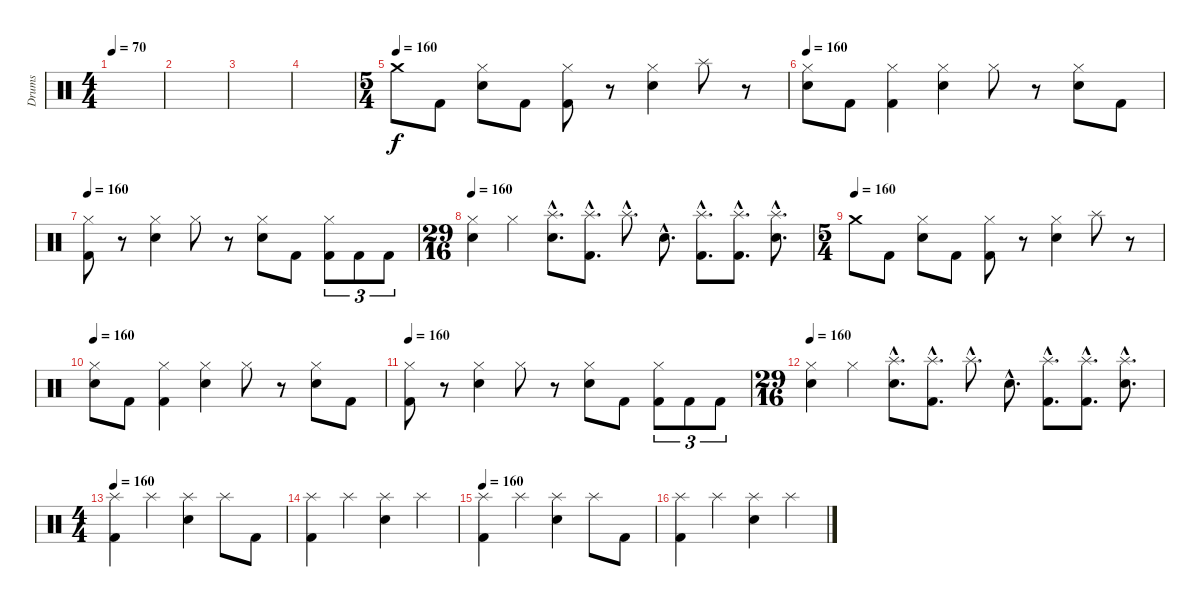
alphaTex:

\track ("Drums" "Drums") {instrument percussion}
\staff {score}
\articulation defaults
\ts (4 4)
\tempo 70
\clef neutral
\ks c
|
|
|
|
\ts (5 4)
\tempo (160)
"Crash medium (hit)".8 "Kick (hit) 2".8 ("Electric Snare (hit)" "Hi-Hat (closed)").8 "Kick (hit) 2".8 ("Kick (hit) 2" "Hi-Hat (closed)").8 r.8 ("Electric Snare (hit)" "Hi-Hat (closed)").4 "Splash (hit)".8 r.8 |
\tempo 160
("Electric Snare (hit)" "Hi-Hat (closed)").8 "Kick (hit) 2".8 ("Kick (hit) 2" "Hi-Hat (closed)").4 ("Electric Snare (hit)" "Hi-Hat (closed)").4 "Hi-Hat (closed)".8 r.8 ("Electric Snare (hit)" "Hi-Hat (closed)").8 "Kick (hit) 2".8 |
\tempo 160
("Kick (hit) 2" "Hi-Hat (closed)").8 r.8 ("Electric Snare (hit)" "Hi-Hat (closed)").4 "Hi-Hat (closed)".8 r.8 ("Electric Snare (hit)" "Hi-Hat (closed)").8 "Kick (hit) 2".8 ("Kick (hit) 2" "Hi-Hat (closed)").8{tu (3 2)} "Kick (hit) 2".8{tu (3 2)} "Kick (hit) 2".8{tu (3 2)} |
\ts (29 16)
\tempo 160
("Electric Snare (hit)" "Hi-Hat (closed)").4 "Hi-Hat (closed)".4 ("Electric Snare (hit)"{hac} "Splash (hit)"{hac}).8{d} ("Kick (hit) 2"{hac} "Splash (hit)"{hac}).8{d} "Splash (hit)"{hac}.8{d} "Electric Snare (hit)"{hac}.8{d} ("Kick (hit) 2"{hac} "Splash (hit)"{hac}).8{d} ("Kick (hit) 2"{hac} "Splash (hit)"{hac}).8{d} ("Electric Snare (hit)"{hac} "Splash (hit)"{hac}).8{d} |
\ts (5 4)
\tempo (160)
"Crash medium (hit)".8 "Kick (hit) 2".8 ("Electric Snare (hit)" "Hi-Hat (closed)").8 "Kick (hit) 2".8 ("Kick (hit) 2" "Hi-Hat (closed)").8 r.8 ("Electric Snare (hit)" "Hi-Hat (closed)").4 "Splash (hit)".8 r.8 |
\tempo 160
("Electric Snare (hit)" "Hi-Hat (closed)").8 "Kick (hit) 2".8 ("Kick (hit) 2" "Hi-Hat (closed)").4 ("Electric Snare (hit)" "Hi-Hat (closed)").4 "Hi-Hat (closed)".8 r.8 ("Electric Snare (hit)" "Hi-Hat (closed)").8 "Kick (hit) 2".8 |
\tempo 160
("Kick (hit) 2" "Hi-Hat (closed)").8 r.8 ("Electric Snare (hit)" "Hi-Hat (closed)").4 "Hi-Hat (closed)".8 r.8 ("Electric Snare (hit)" "Hi-Hat (closed)").8 "Kick (hit) 2".8 ("Kick (hit) 2" "Hi-Hat (closed)").8{tu (3 2)} "Kick (hit) 2".8{tu (3 2)} "Kick (hit) 2".8{tu (3 2)} |
\ts (29 16)
\tempo 160
("Electric Snare (hit)" "Hi-Hat (closed)").4 "Hi-Hat (closed)".4 ("Electric Snare (hit)"{hac} "Splash (hit)"{hac}).8{d} ("Kick (hit) 2"{hac} "Splash (hit)"{hac}).8{d} "Splash (hit)"{hac}.8{d} "Electric Snare (hit)"{hac}.8{d} ("Kick (hit) 2"{hac} "Splash (hit)"{hac}).8{d} ("Kick (hit) 2"{hac} "Splash (hit)"{hac}).8{d} ("Electric Snare (hit)"{hac} "Splash (hit)"{hac}).8{d} |
\ts (4 4)
\tempo 160
("Kick (hit) 2" "Splash (hit)").4 "Splash (hit)".4 ("Electric Snare (hit)" "Splash (hit)").4 "Splash (hit)".8 "Kick (hit) 2".8 |
("Kick (hit) 2" "Splash (hit)").4 "Splash (hit)".4 ("Electric Snare (hit)" "Splash (hit)").4 "Splash (hit)".4 |
\tempo 160
("Kick (hit) 2" "Splash (hit)").4 "Splash (hit)".4 ("Electric Snare (hit)" "Splash (hit)").4 "Splash (hit)".8 "Kick (hit) 2".8 |
("Kick (hit) 2" "Splash (hit)").4 "Splash (hit)".4 ("Electric Snare (hit)" "Splash (hit)").4 "Splash (hit)".4
